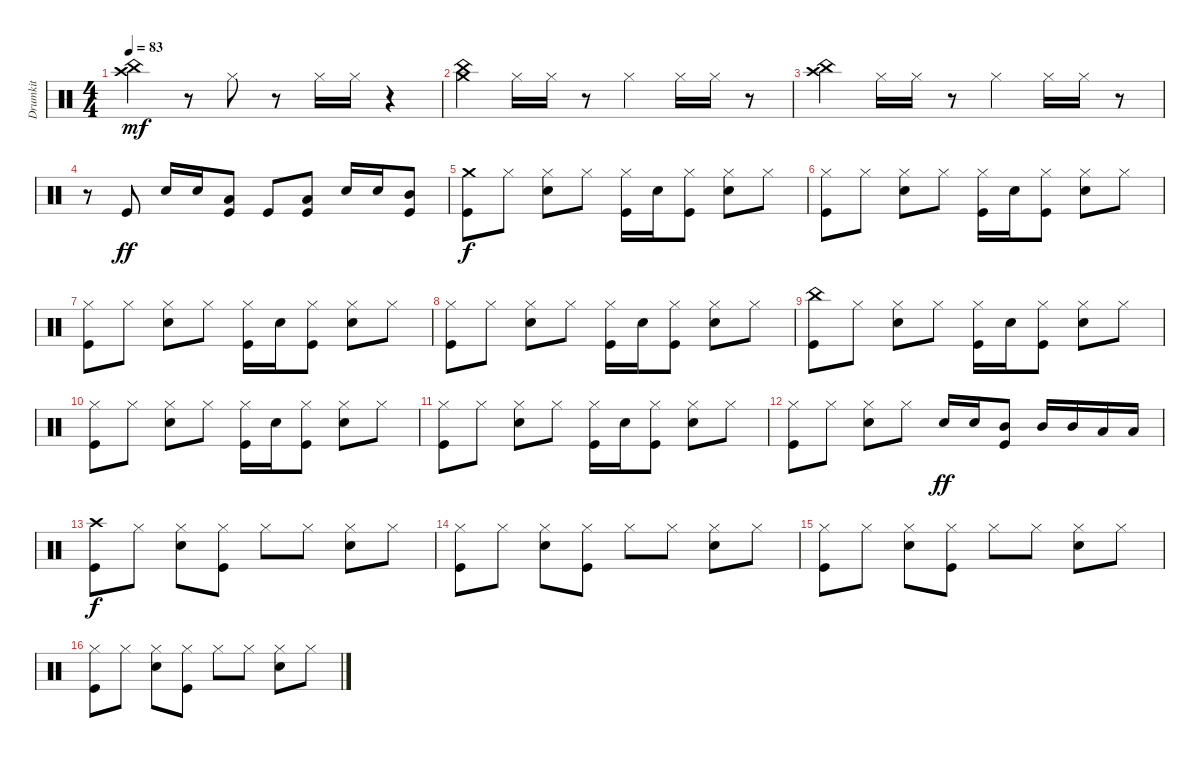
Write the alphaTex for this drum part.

\track ("Drumkit" "Drumkit") {instrument percussion}
\staff {score}
\articulation defaults
\ts (4 4)
\tempo 83
\clef neutral
\ks c
("China (hit)" "Crash high (hit)").4{dy mf} r.8 "Hi-Hat (closed)".8 r.8 "Hi-Hat (closed)".16 "Hi-Hat (closed)".16 r.4 |
("China (hit)" "Crash medium (hit)").4 "Hi-Hat (closed)".16 "Hi-Hat (closed)".16 r.8 "Hi-Hat (closed)".4 "Hi-Hat (closed)".16 "Hi-Hat (closed)".16 r.8 |
("Crash high (hit)" "China (hit)").4 "Hi-Hat (closed)".16 "Hi-Hat (closed)".16 r.8 "Hi-Hat (closed)".4 "Hi-Hat (closed)".16 "Hi-Hat (closed)".16 r.8 |
r.8 "Kick (hit)".8{dy ff} "Snare (hit) 2".16 "Snare (hit) 2".16 ("Low Tom (hit)" "Kick (hit)").8 "Kick (hit)".8 ("Kick (hit)" "Low Tom (hit)").8 "Snare (hit) 2".16 "Snare (hit) 2".16 ("Mid Tom (hit)" "Kick (hit)").8 |
("Kick (hit)" "Crash medium (hit)").8{dy f} "Hi-Hat (closed)".8 ("Snare (hit) 2" "Hi-Hat (closed)").8 "Hi-Hat (closed)".8 ("Kick (hit)" "Hi-Hat (closed)").16 "Snare (hit) 2".16 ("Kick (hit)" "Hi-Hat (closed)").8 ("Snare (hit) 2" "Hi-Hat (closed)").8 "Hi-Hat (closed)".8 |
("Kick (hit)" "Hi-Hat (closed)").8 "Hi-Hat (closed)".8 ("Snare (hit) 2" "Hi-Hat (closed)").8 "Hi-Hat (closed)".8 ("Kick (hit)" "Hi-Hat (closed)").16 "Snare (hit) 2".16 ("Kick (hit)" "Hi-Hat (closed)").8 ("Snare (hit) 2" "Hi-Hat (closed)").8 "Hi-Hat (closed)".8 |
("Kick (hit)" "Hi-Hat (closed)").8 "Hi-Hat (closed)".8 ("Snare (hit) 2" "Hi-Hat (closed)").8 "Hi-Hat (closed)".8 ("Kick (hit)" "Hi-Hat (closed)").16 "Snare (hit) 2".16 ("Kick (hit)" "Hi-Hat (closed)").8 ("Snare (hit) 2" "Hi-Hat (closed)").8 "Hi-Hat (closed)".8 |
("Kick (hit)" "Hi-Hat (closed)").8 "Hi-Hat (closed)".8 ("Snare (hit) 2" "Hi-Hat (closed)").8 "Hi-Hat (closed)".8 ("Kick (hit)" "Hi-Hat (closed)").16 "Snare (hit) 2".16 ("Kick (hit)" "Hi-Hat (closed)").8 ("Snare (hit) 2" "Hi-Hat (closed)").8 "Hi-Hat (closed)".8 |
("Kick (hit)" "China (hit)").8 "Hi-Hat (closed)".8 ("Snare (hit) 2" "Hi-Hat (closed)").8 "Hi-Hat (closed)".8 ("Kick (hit)" "Hi-Hat (closed)").16 "Snare (hit) 2".16 ("Kick (hit)" "Hi-Hat (closed)").8 ("Snare (hit) 2" "Hi-Hat (closed)").8 "Hi-Hat (closed)".8 |
("Kick (hit)" "Hi-Hat (closed)").8 "Hi-Hat (closed)".8 ("Snare (hit) 2" "Hi-Hat (closed)").8 "Hi-Hat (closed)".8 ("Kick (hit)" "Hi-Hat (closed)").16 "Snare (hit) 2".16 ("Kick (hit)" "Hi-Hat (closed)").8 ("Snare (hit) 2" "Hi-Hat (closed)").8 "Hi-Hat (closed)".8 |
("Kick (hit)" "Hi-Hat (closed)").8 "Hi-Hat (closed)".8 ("Snare (hit) 2" "Hi-Hat (closed)").8 "Hi-Hat (closed)".8 ("Kick (hit)" "Hi-Hat (closed)").16 "Snare (hit) 2".16 ("Kick (hit)" "Hi-Hat (closed)").8 ("Snare (hit) 2" "Hi-Hat (closed)").8 "Hi-Hat (closed)".8 |
("Kick (hit)" "Hi-Hat (closed)").8 "Hi-Hat (closed)".8 ("Snare (hit) 2" "Hi-Hat (closed)").8 "Hi-Hat (closed)".8 "Snare (hit) 2".16{dy ff} "Snare (hit) 2".16 ("Mid Tom (hit)" "Kick (hit)").8 "Mid Tom (hit)".16 "Mid Tom (hit)".16 "Low Tom (hit)".16 "Low Tom (hit)".16 |
("Kick (hit)" "Crash high (hit)").8{dy f} "Hi-Hat (closed)".8 ("Snare (hit) 2" "Hi-Hat (closed)").8 ("Hi-Hat (closed)" "Kick (hit)").8 "Hi-Hat (closed)".8 "Hi-Hat (closed)".8 ("Snare (hit) 2" "Hi-Hat (closed)").8 "Hi-Hat (closed)".8 |
("Kick (hit)" "Hi-Hat (closed)").8 "Hi-Hat (closed)".8 ("Snare (hit) 2" "Hi-Hat (closed)").8 ("Hi-Hat (closed)" "Kick (hit)").8 "Hi-Hat (closed)".8 "Hi-Hat (closed)".8 ("Snare (hit) 2" "Hi-Hat (closed)").8 "Hi-Hat (closed)".8 |
("Kick (hit)" "Hi-Hat (closed)").8 "Hi-Hat (closed)".8 ("Snare (hit) 2" "Hi-Hat (closed)").8 ("Hi-Hat (closed)" "Kick (hit)").8 "Hi-Hat (closed)".8 "Hi-Hat (closed)".8 ("Snare (hit) 2" "Hi-Hat (closed)").8 "Hi-Hat (closed)".8 |
("Kick (hit)" "Hi-Hat (closed)").8 "Hi-Hat (closed)".8 ("Snare (hit) 2" "Hi-Hat (closed)").8 ("Hi-Hat (closed)" "Kick (hit)").8 "Hi-Hat (closed)".8 "Hi-Hat (closed)".8 ("Snare (hit) 2" "Hi-Hat (closed)").8 "Hi-Hat (closed)".8
